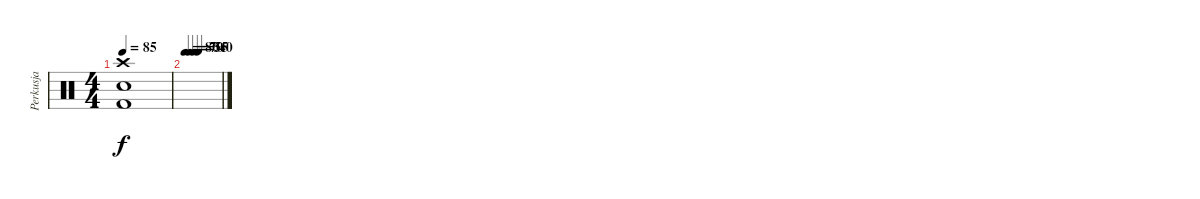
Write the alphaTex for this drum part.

\track ("Perkusja" "Perkusja") {instrument percussion}
\staff {score}
\articulation defaults
\ts (4 4)
\tempo 85
\clef neutral
\ks c
("Crash high (hit)" "Kick (hit) 2" "Snare (hit) 2").1{dy f} |
\tempo 80
\tempo (70 0.125)
\tempo (55 0.25)
\tempo (40 0.375)
